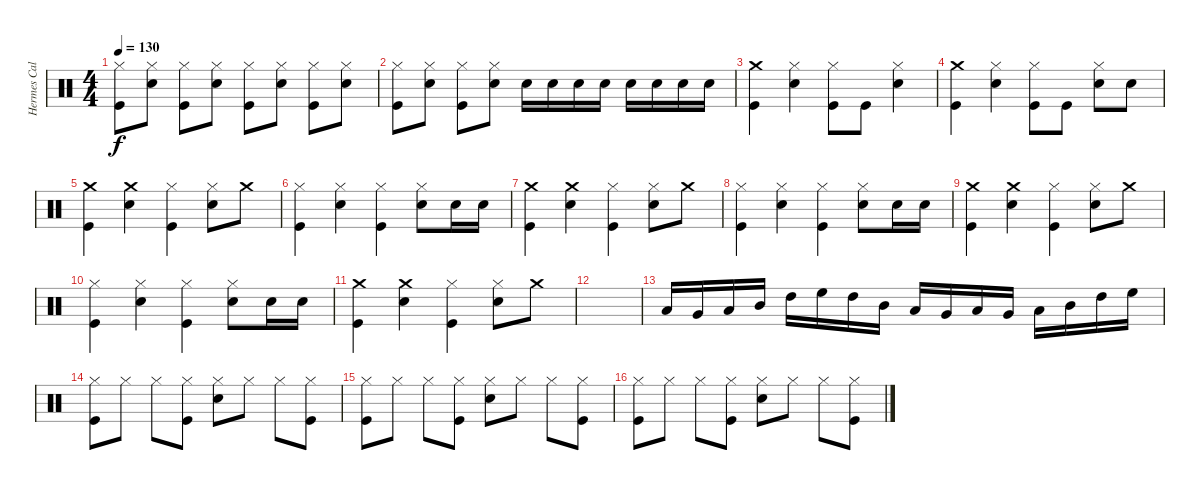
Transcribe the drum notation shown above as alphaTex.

\track ("Hermes Calabria" "Hermes Cal") {instrument percussion}
\staff {score}
\articulation defaults
\ts (4 4)
\tempo 130
\clef neutral
\ks c
("Hi-Hat (closed)" "Kick (hit)").8{dy f} ("Hi-Hat (closed)" "Snare (hit) 2").8 ("Hi-Hat (closed)" "Kick (hit)").8 ("Hi-Hat (closed)" "Snare (hit) 2").8 ("Hi-Hat (closed)" "Kick (hit)").8 ("Hi-Hat (closed)" "Snare (hit) 2").8 ("Hi-Hat (closed)" "Kick (hit)").8 ("Hi-Hat (closed)" "Snare (hit) 2").8 |
("Hi-Hat (closed)" "Kick (hit)").8 ("Hi-Hat (closed)" "Snare (hit) 2").8 ("Hi-Hat (closed)" "Kick (hit)").8 ("Hi-Hat (closed)" "Snare (hit) 2").8 "Snare (hit) 2".16 "Snare (hit) 2".16 "Snare (hit) 2".16 "Snare (hit) 2".16 "Snare (hit) 2".16 "Snare (hit) 2".16 "Snare (hit) 2".16 "Snare (hit) 2".16 |
("Crash medium (hit)" "Kick (hit)").4 ("Hi-Hat (closed)" "Snare (hit) 2").4 ("Hi-Hat (closed)" "Kick (hit)").8 "Kick (hit)".8 ("Hi-Hat (closed)" "Snare (hit) 2").4 |
("Crash medium (hit)" "Kick (hit)").4 ("Hi-Hat (closed)" "Snare (hit) 2").4 ("Hi-Hat (closed)" "Kick (hit)").8 "Kick (hit)".8 ("Hi-Hat (closed)" "Snare (hit) 2").8 "Snare (hit) 2".8 |
("Crash medium (hit)" "Kick (hit)").4 ("Crash medium (hit)" "Snare (hit) 2").4 ("Hi-Hat (closed)" "Kick (hit)").4 ("Hi-Hat (closed)" "Snare (hit) 2").8 "Crash medium (hit)".8 |
("Hi-Hat (closed)" "Kick (hit)").4 ("Hi-Hat (closed)" "Snare (hit) 2").4 ("Hi-Hat (closed)" "Kick (hit)").4 ("Hi-Hat (closed)" "Snare (hit) 2").8 "Snare (hit) 2".16 "Snare (hit) 2".16 |
("Crash medium (hit)" "Kick (hit)").4 ("Crash medium (hit)" "Snare (hit) 2").4 ("Hi-Hat (closed)" "Kick (hit)").4 ("Hi-Hat (closed)" "Snare (hit) 2").8 "Crash medium (hit)".8 |
("Hi-Hat (closed)" "Kick (hit)").4 ("Hi-Hat (closed)" "Snare (hit) 2").4 ("Hi-Hat (closed)" "Kick (hit)").4 ("Hi-Hat (closed)" "Snare (hit) 2").8 "Snare (hit) 2".16 "Snare (hit) 2".16 |
("Crash medium (hit)" "Kick (hit)").4 ("Crash medium (hit)" "Snare (hit) 2").4 ("Hi-Hat (closed)" "Kick (hit)").4 ("Hi-Hat (closed)" "Snare (hit) 2").8 "Crash medium (hit)".8 |
("Hi-Hat (closed)" "Kick (hit)").4 ("Hi-Hat (closed)" "Snare (hit) 2").4 ("Hi-Hat (closed)" "Kick (hit)").4 ("Hi-Hat (closed)" "Snare (hit) 2").8 "Snare (hit) 2".16 "Snare (hit) 2".16 |
("Crash medium (hit)" "Kick (hit)").4 ("Crash medium (hit)" "Snare (hit) 2").4 ("Hi-Hat (closed)" "Kick (hit)").4 ("Hi-Hat (closed)" "Snare (hit) 2").8 "Crash medium (hit)".8 |
|
"Low Floor Tom (hit)".16 "Very Low Tom (hit)".16 "Low Tom (hit)".16 "Mid Tom (hit)".16 "High Tom (hit)".16 "High Floor Tom (hit)".16 "High Tom (hit)".16 "Mid Tom (hit)".16 "Low Tom (hit)".16 "Very Low Tom (hit)".16 "Low Floor Tom (hit)".16 "Very Low Tom (hit)".16 "Low Tom (hit)".16 "Mid Tom (hit)".16 "High Tom (hit)".16 "High Floor Tom (hit)".16 |
("Hi-Hat (closed)" "Kick (hit)").8 "Hi-Hat (closed)".8 "Hi-Hat (closed)".8 ("Hi-Hat (closed)" "Kick (hit)").8 ("Hi-Hat (closed)" "Snare (hit) 2").8 "Hi-Hat (closed)".8 "Hi-Hat (closed)".8 ("Hi-Hat (closed)" "Kick (hit)").8 |
("Hi-Hat (closed)" "Kick (hit)").8 "Hi-Hat (closed)".8 "Hi-Hat (closed)".8 ("Hi-Hat (closed)" "Kick (hit)").8 ("Hi-Hat (closed)" "Snare (hit) 2").8 "Hi-Hat (closed)".8 "Hi-Hat (closed)".8 ("Hi-Hat (closed)" "Kick (hit)").8 |
("Hi-Hat (closed)" "Kick (hit)").8 "Hi-Hat (closed)".8 "Hi-Hat (closed)".8 ("Hi-Hat (closed)" "Kick (hit)").8 ("Hi-Hat (closed)" "Snare (hit) 2").8 "Hi-Hat (closed)".8 "Hi-Hat (closed)".8 ("Hi-Hat (closed)" "Kick (hit)").8
